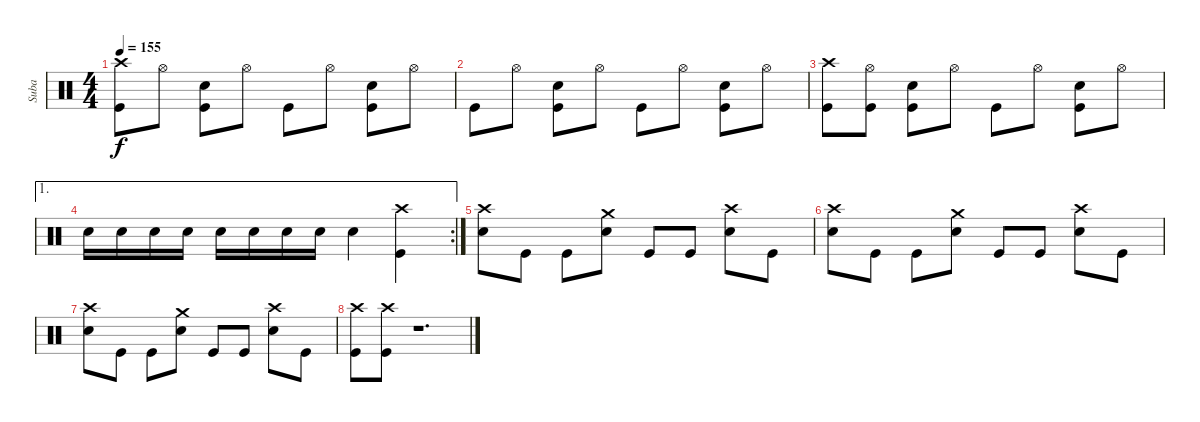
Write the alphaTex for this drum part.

\track ("Suba" "Suba") {instrument percussion}
\staff {score}
\articulation defaults
\ts (4 4)
\tempo 155
\clef neutral
\ks c
("Crash high (hit)" "Kick (hit)").8{dy f volume 11} "Hi-Hat (open)".8 ("Electric Snare (hit)" "Kick (hit)").8 "Hi-Hat (open)".8 "Kick (hit)".8 "Hi-Hat (open)".8 ("Electric Snare (hit)" "Kick (hit)").8 "Hi-Hat (open)".8 |
"Kick (hit)".8 "Hi-Hat (open)".8 ("Electric Snare (hit)" "Kick (hit)").8 "Hi-Hat (open)".8 "Kick (hit)".8 "Hi-Hat (open)".8 ("Electric Snare (hit)" "Kick (hit)").8 "Hi-Hat (open)".8 |
("Crash high (hit)" "Kick (hit)").8 ("Hi-Hat (open)" "Kick (hit)").8 ("Electric Snare (hit)" "Kick (hit)").8 "Hi-Hat (open)".8 "Kick (hit)".8 "Hi-Hat (open)".8 ("Electric Snare (hit)" "Kick (hit)").8 "Hi-Hat (open)".8 |
\ae 1
\rc 2 "Electric Snare (hit)".16 "Electric Snare (hit)".16 "Electric Snare (hit)".16 "Electric Snare (hit)".16 "Electric Snare (hit)".16 "Electric Snare (hit)".16 "Electric Snare (hit)".16 "Electric Snare (hit)".16 "Electric Snare (hit)".4
("Crash high (hit)" "Kick (hit)").4 |
("Crash high (hit)" "Electric Snare (hit)").8 "Kick (hit)".8 "Kick (hit)".8 ("Crash medium (hit)" "Electric Snare (hit)").8 "Kick (hit)".8 "Kick (hit)".8 ("Crash high (hit)" "Electric Snare (hit)").8 "Kick (hit)".8 |
("Crash high (hit)" "Electric Snare (hit)").8 "Kick (hit)".8 "Kick (hit)".8 ("Crash medium (hit)" "Electric Snare (hit)").8 "Kick (hit)".8 "Kick (hit)".8 ("Crash high (hit)" "Electric Snare (hit)").8 "Kick (hit)".8 |
("Crash high (hit)" "Electric Snare (hit)").8 "Kick (hit)".8 "Kick (hit)".8 ("Crash medium (hit)" "Electric Snare (hit)").8 "Kick (hit)".8 "Kick (hit)".8 ("Crash high (hit)" "Electric Snare (hit)").8 "Kick (hit)".8 |
("Crash high (hit)" "Kick (hit)").8 ("Crash high (hit)" "Kick (hit)").8 r.1{d volume 0}
